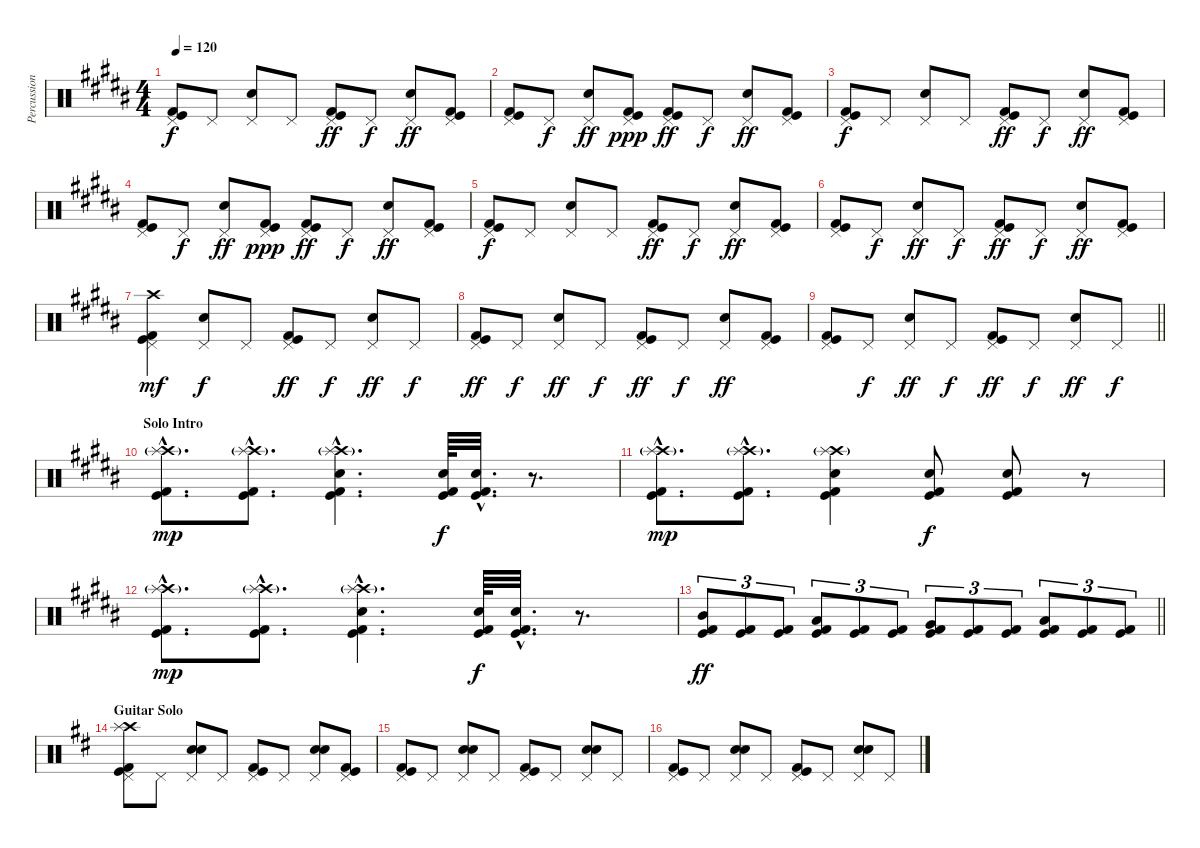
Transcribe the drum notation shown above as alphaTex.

\track ("Percussion" "Percussion") {instrument percussion}
\staff {score}
\articulation defaults
\ts (4 4)
\tempo 120
\clef neutral
\ks b
("Pedal Hi-Hat (hit)" "Kick (hit)" "Kick (hit) 2").8{dy f} "Pedal Hi-Hat (hit)".8 ("Snare (hit) 2" "Pedal Hi-Hat (hit)").8 "Pedal Hi-Hat (hit)".8 ("Pedal Hi-Hat (hit)" "Kick (hit) 2" "Kick (hit)").8{dy ff} "Pedal Hi-Hat (hit)".8{dy f} ("Snare (hit) 2" "Pedal Hi-Hat (hit)").8{dy ff} ("Pedal Hi-Hat (hit)" "Kick (hit)" "Kick (hit) 2").8 |
("Pedal Hi-Hat (hit)" "Kick (hit)" "Kick (hit) 2").8 "Pedal Hi-Hat (hit)".8{dy f} ("Snare (hit) 2" "Pedal Hi-Hat (hit)").8{dy ff} ("Pedal Hi-Hat (hit)" "Kick (hit)" "Kick (hit) 2").8{dy ppp} ("Pedal Hi-Hat (hit)" "Kick (hit)" "Kick (hit) 2").8{dy ff} "Pedal Hi-Hat (hit)".8{dy f} ("Snare (hit) 2" "Pedal Hi-Hat (hit)").8{dy ff} ("Pedal Hi-Hat (hit)" "Kick (hit)" "Kick (hit) 2").8 |
("Pedal Hi-Hat (hit)" "Kick (hit)" "Kick (hit) 2").8{dy f} "Pedal Hi-Hat (hit)".8 ("Snare (hit) 2" "Pedal Hi-Hat (hit)").8 "Pedal Hi-Hat (hit)".8 ("Pedal Hi-Hat (hit)" "Kick (hit) 2" "Kick (hit)").8{dy ff} "Pedal Hi-Hat (hit)".8{dy f} ("Snare (hit) 2" "Pedal Hi-Hat (hit)").8{dy ff} ("Pedal Hi-Hat (hit)" "Kick (hit)" "Kick (hit) 2").8 |
("Pedal Hi-Hat (hit)" "Kick (hit)" "Kick (hit) 2").8 "Pedal Hi-Hat (hit)".8{dy f} ("Snare (hit) 2" "Pedal Hi-Hat (hit)").8{dy ff} ("Pedal Hi-Hat (hit)" "Kick (hit)" "Kick (hit) 2").8{dy ppp} ("Pedal Hi-Hat (hit)" "Kick (hit)" "Kick (hit) 2").8{dy ff} "Pedal Hi-Hat (hit)".8{dy f} ("Snare (hit) 2" "Pedal Hi-Hat (hit)").8{dy ff} ("Pedal Hi-Hat (hit)" "Kick (hit)" "Kick (hit) 2").8 |
("Pedal Hi-Hat (hit)" "Kick (hit)" "Kick (hit) 2").8{dy f} "Pedal Hi-Hat (hit)".8 ("Snare (hit) 2" "Pedal Hi-Hat (hit)").8 "Pedal Hi-Hat (hit)".8 ("Pedal Hi-Hat (hit)" "Kick (hit) 2" "Kick (hit)").8{dy ff} "Pedal Hi-Hat (hit)".8{dy f} ("Snare (hit) 2" "Pedal Hi-Hat (hit)").8{dy ff} ("Pedal Hi-Hat (hit)" "Kick (hit)" "Kick (hit) 2").8 |
("Pedal Hi-Hat (hit)" "Kick (hit)" "Kick (hit) 2").8 "Pedal Hi-Hat (hit)".8{dy f} ("Snare (hit) 2" "Pedal Hi-Hat (hit)").8{dy ff} "Pedal Hi-Hat (hit)".8{dy f} ("Pedal Hi-Hat (hit)" "Kick (hit)" "Kick (hit) 2").8{dy ff} "Pedal Hi-Hat (hit)".8{dy f} ("Snare (hit) 2" "Pedal Hi-Hat (hit)").8{dy ff} ("Pedal Hi-Hat (hit)" "Kick (hit)" "Kick (hit) 2").8 |
("Crash high (hit)" "Pedal Hi-Hat (hit)" "Kick (hit)" "Kick (hit) 2").4{dy mf} ("Snare (hit) 2" "Pedal Hi-Hat (hit)").8{dy f} "Pedal Hi-Hat (hit)".8 ("Pedal Hi-Hat (hit)" "Kick (hit) 2" "Kick (hit)").8{dy ff} "Pedal Hi-Hat (hit)".8{dy f} ("Snare (hit) 2" "Pedal Hi-Hat (hit)").8{dy ff} "Pedal Hi-Hat (hit)".8{dy f} |
("Pedal Hi-Hat (hit)" "Kick (hit)" "Kick (hit) 2").8{dy ff} "Pedal Hi-Hat (hit)".8{dy f} ("Snare (hit) 2" "Pedal Hi-Hat (hit)").8{dy ff} "Pedal Hi-Hat (hit)".8{dy f} ("Pedal Hi-Hat (hit)" "Kick (hit)" "Kick (hit) 2").8{dy ff} "Pedal Hi-Hat (hit)".8{dy f} ("Snare (hit) 2" "Pedal Hi-Hat (hit)").8{dy ff} ("Pedal Hi-Hat (hit)" "Kick (hit)" "Kick (hit) 2").8 |
\barLineRight lightlight
("Pedal Hi-Hat (hit)" "Kick (hit)" "Kick (hit) 2").8 "Pedal Hi-Hat (hit)".8{dy f} ("Snare (hit) 2" "Pedal Hi-Hat (hit)").8{dy ff} "Pedal Hi-Hat (hit)".8{dy f} ("Pedal Hi-Hat (hit)" "Kick (hit)" "Kick (hit) 2").8{dy ff} "Pedal Hi-Hat (hit)".8{dy f} ("Snare (hit) 2" "Pedal Hi-Hat (hit)").8{dy ff} "Pedal Hi-Hat (hit)".8{dy f} |
\section ("" "Solo Intro")
("Crash high (hit)"{g hac} "Splash (hit)"{g hac} "Kick (hit)"{hac} "Kick (hit) 2"{hac}).8{d dy mp} ("Crash high (hit)"{g hac} "Splash (hit)"{g hac} "Kick (hit)"{hac} "Kick (hit) 2"{hac}).8{d} ("Crash high (hit)"{g hac} "Splash (hit)"{g hac} "Snare (hit) 2"{hac} "Kick (hit)"{hac} "Kick (hit) 2"{hac}).4{d} ("Snare (hit) 2" "Kick (hit) 2" "Kick (hit)").64{dy f} ("Snare (hit) 2"{hac} "Kick (hit)"{hac} "Kick (hit) 2"{hac}).32{d} r.8{d} |
("Crash high (hit)"{g hac} "Splash (hit)"{g hac} "Kick (hit)"{hac} "Kick (hit) 2"{hac}).8{d dy mp} ("Crash high (hit)"{g hac} "Splash (hit)"{g hac} "Kick (hit)"{hac} "Kick (hit) 2"{hac}).8{d} ("Crash high (hit)"{g} "Splash (hit)"{g} "Snare (hit) 2" "Kick (hit)" "Kick (hit) 2").4 ("Snare (hit) 2" "Kick (hit)" "Kick (hit) 2").8{dy f} ("Snare (hit) 2" "Kick (hit) 2" "Kick (hit)").8 r.8 |
("Crash high (hit)"{g hac} "Splash (hit)"{g hac} "Kick (hit)"{hac} "Kick (hit) 2"{hac}).8{d dy mp} ("Crash high (hit)"{g hac} "Splash (hit)"{g hac} "Kick (hit)"{hac} "Kick (hit) 2"{hac}).8{d} ("Crash high (hit)"{g hac} "Splash (hit)"{g hac} "Snare (hit) 2"{hac} "Kick (hit)"{hac} "Kick (hit) 2"{hac}).4{d} ("Snare (hit) 2" "Kick (hit) 2" "Kick (hit)").64{dy f} ("Snare (hit) 2"{hac} "Kick (hit)"{hac} "Kick (hit) 2"{hac}).32{d} r.8{d} |
\barLineRight lightlight
("Mid Tom (hit)" "Kick (hit)" "Kick (hit) 2").8{tu (3 2) dy ff} ("Kick (hit)" "Kick (hit) 2").8{tu (3 2)} ("Kick (hit)" "Kick (hit) 2").8{tu (3 2)} ("Low Tom (hit)" "Kick (hit)" "Kick (hit) 2").8{tu (3 2)} ("Kick (hit)" "Kick (hit) 2").8{tu (3 2)} ("Kick (hit)" "Kick (hit) 2").8{tu (3 2)} ("Very Low Tom (hit)" "Kick (hit)" "Kick (hit) 2").8{tu (3 2)} ("Kick (hit)" "Kick (hit) 2").8{tu (3 2)} ("Kick (hit)" "Kick (hit) 2").8{tu (3 2)} ("Low Floor Tom (hit)" "Kick (hit)" "Kick (hit) 2").8{tu (3 2)} ("Kick (hit)" "Kick (hit) 2").8{tu (3 2)} ("Kick (hit)" "Kick (hit) 2").8{tu (3 2)} |
\section ("" "Guitar Solo")
\ks d
("Crash high (hit)" "Splash (hit)" "Pedal Hi-Hat (hit)" "Kick (hit)" "Kick (hit) 2").8 "Pedal Hi-Hat (hit)".8 ("Electric Snare (hit)" "Snare (hit) 2" "Pedal Hi-Hat (hit)").8 "Pedal Hi-Hat (hit)".8 ("Pedal Hi-Hat (hit)" "Kick (hit)" "Kick (hit) 2").8 "Pedal Hi-Hat (hit)".8 ("Electric Snare (hit)" "Snare (hit) 2" "Pedal Hi-Hat (hit)").8 ("Pedal Hi-Hat (hit)" "Kick (hit)" "Kick (hit) 2").8 |
("Pedal Hi-Hat (hit)" "Kick (hit)" "Kick (hit) 2").8 "Pedal Hi-Hat (hit)".8 ("Electric Snare (hit)" "Snare (hit) 2" "Pedal Hi-Hat (hit)").8 "Pedal Hi-Hat (hit)".8 ("Pedal Hi-Hat (hit)" "Kick (hit)" "Kick (hit) 2").8 "Pedal Hi-Hat (hit)".8 ("Electric Snare (hit)" "Snare (hit) 2" "Pedal Hi-Hat (hit)").8 "Pedal Hi-Hat (hit)".8 |
("Pedal Hi-Hat (hit)" "Kick (hit)" "Kick (hit) 2").8 "Pedal Hi-Hat (hit)".8 ("Electric Snare (hit)" "Snare (hit) 2" "Pedal Hi-Hat (hit)").8 "Pedal Hi-Hat (hit)".8 ("Pedal Hi-Hat (hit)" "Kick (hit)" "Kick (hit) 2").8 "Pedal Hi-Hat (hit)".8 ("Electric Snare (hit)" "Snare (hit) 2" "Pedal Hi-Hat (hit)").8 "Pedal Hi-Hat (hit)".8
